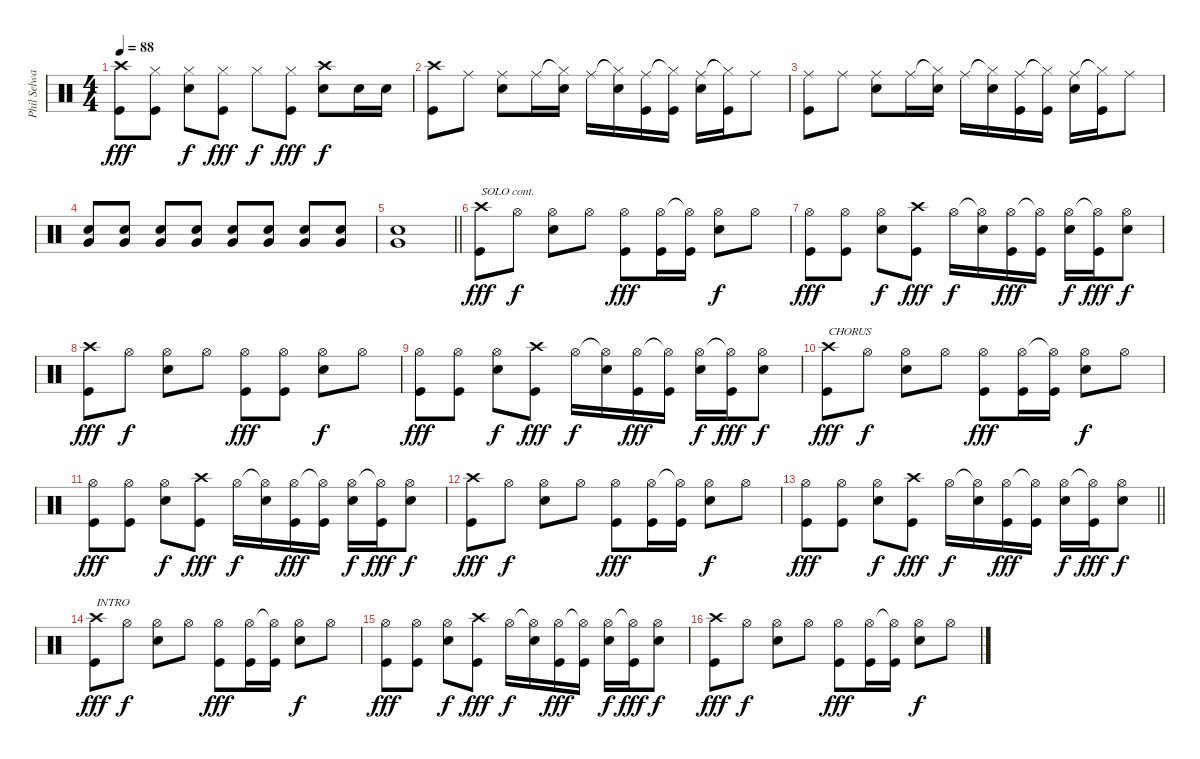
\track ("Phil Selway" "Phil Selwa") {instrument percussion}
\staff {score}
\articulation defaults
\ts (4 4)
\tempo 88
\clef neutral
\ks c
("Crash high (hit)" "Kick (hit)").8{dy fff} ("Hi-Hat (closed)" "Kick (hit)").8 ("Hi-Hat (closed)" "Snare (hit) 2").8{dy f} ("Hi-Hat (closed)" "Kick (hit)").8{dy fff} "Hi-Hat (closed)".8{dy f} ("Hi-Hat (closed)" "Kick (hit)").8{dy fff} ("Crash high (hit)" "Snare (hit) 2").8{dy f} "Snare (hit) 2".16 "Snare (hit) 2".16 |
("Crash high (hit)" "Kick (hit)").8 "Ride (middle)".8 ("Ride (middle)" "Snare (hit) 2").8 "Ride (middle)".16 ("Hi-Hat (closed)"{t} "Snare (hit) 2").16 "Ride (middle)".16 ("Hi-Hat (closed)"{t} "Snare (hit) 2").16 ("Ride (middle)" "Kick (hit)").16 ("Hi-Hat (closed)"{t} "Kick (hit)").16 ("Ride (middle)" "Snare (hit) 2").16 ("Hi-Hat (closed)"{t} "Kick (hit)").16 "Ride (middle)".8 |
("Ride (middle)" "Kick (hit)").8 "Ride (middle)".8 ("Ride (middle)" "Snare (hit) 2").8 "Ride (middle)".16 ("Hi-Hat (closed)"{t} "Snare (hit) 2").16 "Ride (middle)".16 ("Hi-Hat (closed)"{t} "Snare (hit) 2").16 ("Ride (middle)" "Kick (hit)").16 ("Hi-Hat (closed)"{t} "Kick (hit)").16 ("Ride (middle)" "Snare (hit) 2").16 ("Hi-Hat (closed)"{t} "Kick (hit)").16 "Ride (middle)".8 |
("Snare (hit) 2" "Very Low Tom (hit)").8 ("Snare (hit) 2" "Very Low Tom (hit)").8 ("Snare (hit) 2" "Very Low Tom (hit)").8 ("Snare (hit) 2" "Very Low Tom (hit)").8 ("Snare (hit) 2" "Very Low Tom (hit)").8 ("Snare (hit) 2" "Very Low Tom (hit)").8 ("Snare (hit) 2" "Very Low Tom (hit)").8 ("Snare (hit) 2" "Very Low Tom (hit)").8 |
\barLineRight lightlight
("Snare (hit) 2" "Very Low Tom (hit)").1 |
("Crash high (hit)" "Kick (hit)").8{txt "SOLO cont." dy fff} "Hi-Hat (open)".8{dy f} ("Hi-Hat (open)" "Snare (hit) 2").8 "Hi-Hat (open)".8 ("Hi-Hat (open)" "Kick (hit)").8{dy fff} ("Hi-Hat (open)" "Kick (hit)").16 ("Hi-Hat (open)"{t} "Kick (hit)").16 ("Hi-Hat (open)" "Snare (hit) 2").8{dy f} "Hi-Hat (open)".8 |
("Hi-Hat (open)" "Kick (hit)").8{dy fff} ("Hi-Hat (open)" "Kick (hit)").8 ("Hi-Hat (open)" "Snare (hit) 2").8{dy f} ("Crash high (hit)" "Kick (hit)").8{dy fff} "Hi-Hat (open)".16{dy f} ("Hi-Hat (open)"{t} "Snare (hit) 2").16 ("Hi-Hat (open)" "Kick (hit)").16{dy fff} ("Hi-Hat (open)"{t} "Kick (hit)").16 ("Hi-Hat (open)" "Snare (hit) 2").16{dy f} ("Hi-Hat (open)"{t} "Kick (hit)").16{dy fff} ("Hi-Hat (open)" "Snare (hit) 2").8{dy f} |
("Crash high (hit)" "Kick (hit)").8{dy fff} "Hi-Hat (open)".8{dy f} ("Hi-Hat (open)" "Snare (hit) 2").8 "Hi-Hat (open)".8 ("Hi-Hat (open)" "Kick (hit)").8{dy fff} ("Hi-Hat (open)" "Kick (hit)").8 ("Hi-Hat (open)" "Snare (hit) 2").8{dy f} "Hi-Hat (open)".8 |
("Hi-Hat (open)" "Kick (hit)").8{dy fff} ("Hi-Hat (open)" "Kick (hit)").8 ("Hi-Hat (open)" "Snare (hit) 2").8{dy f} ("Crash high (hit)" "Kick (hit)").8{dy fff} "Hi-Hat (open)".16{dy f} ("Hi-Hat (open)"{t} "Snare (hit) 2").16 ("Hi-Hat (open)" "Kick (hit)").16{dy fff} ("Hi-Hat (open)"{t} "Kick (hit)").16 ("Hi-Hat (open)" "Snare (hit) 2").16{dy f} ("Hi-Hat (open)"{t} "Kick (hit)").16{dy fff} ("Hi-Hat (open)" "Snare (hit) 2").8{dy f} |
("Crash high (hit)" "Kick (hit)").8{txt "CHORUS" dy fff} "Hi-Hat (open)".8{dy f} ("Hi-Hat (open)" "Snare (hit) 2").8 "Hi-Hat (open)".8 ("Hi-Hat (open)" "Kick (hit)").8{dy fff} ("Hi-Hat (open)" "Kick (hit)").16 ("Hi-Hat (open)"{t} "Kick (hit)").16 ("Hi-Hat (open)" "Snare (hit) 2").8{dy f} "Hi-Hat (open)".8 |
("Hi-Hat (open)" "Kick (hit)").8{dy fff} ("Hi-Hat (open)" "Kick (hit)").8 ("Hi-Hat (open)" "Snare (hit) 2").8{dy f} ("Crash high (hit)" "Kick (hit)").8{dy fff} "Hi-Hat (open)".16{dy f} ("Hi-Hat (open)"{t} "Snare (hit) 2").16 ("Hi-Hat (open)" "Kick (hit)").16{dy fff} ("Hi-Hat (open)"{t} "Kick (hit)").16 ("Hi-Hat (open)" "Snare (hit) 2").16{dy f} ("Hi-Hat (open)"{t} "Kick (hit)").16{dy fff} ("Hi-Hat (open)" "Snare (hit) 2").8{dy f} |
("Crash high (hit)" "Kick (hit)").8{dy fff} "Hi-Hat (open)".8{dy f} ("Hi-Hat (open)" "Snare (hit) 2").8 "Hi-Hat (open)".8 ("Hi-Hat (open)" "Kick (hit)").8{dy fff} ("Hi-Hat (open)" "Kick (hit)").16 ("Hi-Hat (open)"{t} "Kick (hit)").16 ("Hi-Hat (open)" "Snare (hit) 2").8{dy f} "Hi-Hat (open)".8 |
\barLineRight lightlight
("Hi-Hat (open)" "Kick (hit)").8{dy fff} ("Hi-Hat (open)" "Kick (hit)").8 ("Hi-Hat (open)" "Snare (hit) 2").8{dy f} ("Crash high (hit)" "Kick (hit)").8{dy fff} "Hi-Hat (open)".16{dy f} ("Hi-Hat (open)"{t} "Snare (hit) 2").16 ("Hi-Hat (open)" "Kick (hit)").16{dy fff} ("Hi-Hat (open)"{t} "Kick (hit)").16 ("Hi-Hat (open)" "Snare (hit) 2").16{dy f} ("Hi-Hat (open)"{t} "Kick (hit)").16{dy fff} ("Hi-Hat (open)" "Snare (hit) 2").8{dy f} |
("Crash high (hit)" "Kick (hit)").8{txt "INTRO" dy fff} "Hi-Hat (open)".8{dy f} ("Hi-Hat (open)" "Snare (hit) 2").8 "Hi-Hat (open)".8 ("Hi-Hat (open)" "Kick (hit)").8{dy fff} ("Hi-Hat (open)" "Kick (hit)").16 ("Hi-Hat (open)"{t} "Kick (hit)").16 ("Hi-Hat (open)" "Snare (hit) 2").8{dy f} "Hi-Hat (open)".8 |
("Hi-Hat (open)" "Kick (hit)").8{dy fff} ("Hi-Hat (open)" "Kick (hit)").8 ("Hi-Hat (open)" "Snare (hit) 2").8{dy f} ("Crash high (hit)" "Kick (hit)").8{dy fff} "Hi-Hat (open)".16{dy f} ("Hi-Hat (open)"{t} "Snare (hit) 2").16 ("Hi-Hat (open)" "Kick (hit)").16{dy fff} ("Hi-Hat (open)"{t} "Kick (hit)").16 ("Hi-Hat (open)" "Snare (hit) 2").16{dy f} ("Hi-Hat (open)"{t} "Kick (hit)").16{dy fff} ("Hi-Hat (open)" "Snare (hit) 2").8{dy f} |
("Crash high (hit)" "Kick (hit)").8{dy fff} "Hi-Hat (open)".8{dy f} ("Hi-Hat (open)" "Snare (hit) 2").8 "Hi-Hat (open)".8 ("Hi-Hat (open)" "Kick (hit)").8{dy fff} ("Hi-Hat (open)" "Kick (hit)").16 ("Hi-Hat (open)"{t} "Kick (hit)").16 ("Hi-Hat (open)" "Snare (hit) 2").8{dy f} "Hi-Hat (open)".8
